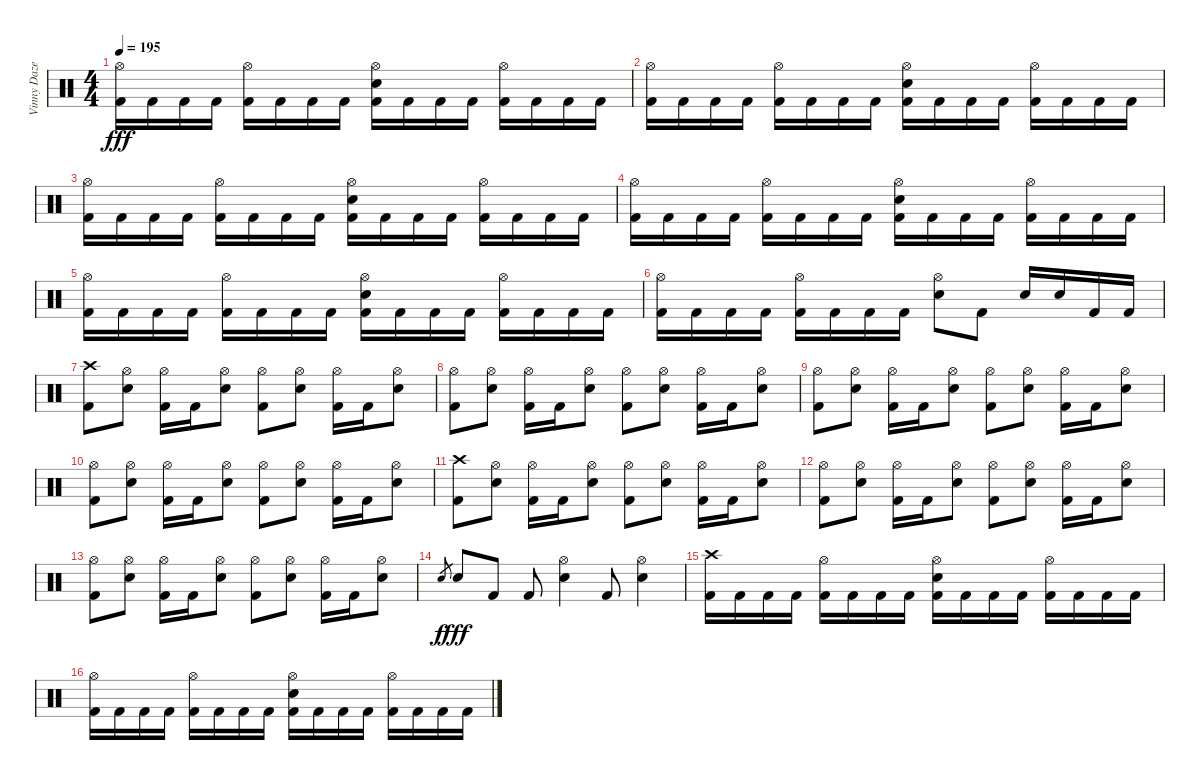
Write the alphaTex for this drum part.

\track ("Vinny Daze (R.I.P.)" "Vinny Daze") {instrument percussion}
\staff {score}
\articulation defaults
\ts (4 4)
\tempo 195
\clef neutral
\ks c
("Hi-Hat (open)" "Kick (hit) 2").16{dy fff} "Kick (hit) 2".16 "Kick (hit) 2".16 "Kick (hit) 2".16 ("Hi-Hat (open)" "Kick (hit) 2").16 "Kick (hit) 2".16 "Kick (hit) 2".16 "Kick (hit) 2".16 ("Hi-Hat (open)" "Electric Snare (hit)" "Kick (hit) 2").16 "Kick (hit) 2".16 "Kick (hit) 2".16 "Kick (hit) 2".16 ("Hi-Hat (open)" "Kick (hit) 2").16 "Kick (hit) 2".16 "Kick (hit) 2".16 "Kick (hit) 2".16 |
("Hi-Hat (open)" "Kick (hit) 2").16 "Kick (hit) 2".16 "Kick (hit) 2".16 "Kick (hit) 2".16 ("Hi-Hat (open)" "Kick (hit) 2").16 "Kick (hit) 2".16 "Kick (hit) 2".16 "Kick (hit) 2".16 ("Hi-Hat (open)" "Electric Snare (hit)" "Kick (hit) 2").16 "Kick (hit) 2".16 "Kick (hit) 2".16 "Kick (hit) 2".16 ("Hi-Hat (open)" "Kick (hit) 2").16 "Kick (hit) 2".16 "Kick (hit) 2".16 "Kick (hit) 2".16 |
("Hi-Hat (open)" "Kick (hit) 2").16 "Kick (hit) 2".16 "Kick (hit) 2".16 "Kick (hit) 2".16 ("Hi-Hat (open)" "Kick (hit) 2").16 "Kick (hit) 2".16 "Kick (hit) 2".16 "Kick (hit) 2".16 ("Hi-Hat (open)" "Electric Snare (hit)" "Kick (hit) 2").16 "Kick (hit) 2".16 "Kick (hit) 2".16 "Kick (hit) 2".16 ("Hi-Hat (open)" "Kick (hit) 2").16 "Kick (hit) 2".16 "Kick (hit) 2".16 "Kick (hit) 2".16 |
("Hi-Hat (open)" "Kick (hit) 2").16 "Kick (hit) 2".16 "Kick (hit) 2".16 "Kick (hit) 2".16 ("Hi-Hat (open)" "Kick (hit) 2").16 "Kick (hit) 2".16 "Kick (hit) 2".16 "Kick (hit) 2".16 ("Hi-Hat (open)" "Electric Snare (hit)" "Kick (hit) 2").16 "Kick (hit) 2".16 "Kick (hit) 2".16 "Kick (hit) 2".16 ("Hi-Hat (open)" "Kick (hit) 2").16 "Kick (hit) 2".16 "Kick (hit) 2".16 "Kick (hit) 2".16 |
("Hi-Hat (open)" "Kick (hit) 2").16 "Kick (hit) 2".16 "Kick (hit) 2".16 "Kick (hit) 2".16 ("Hi-Hat (open)" "Kick (hit) 2").16 "Kick (hit) 2".16 "Kick (hit) 2".16 "Kick (hit) 2".16 ("Hi-Hat (open)" "Electric Snare (hit)" "Kick (hit) 2").16 "Kick (hit) 2".16 "Kick (hit) 2".16 "Kick (hit) 2".16 ("Hi-Hat (open)" "Kick (hit) 2").16 "Kick (hit) 2".16 "Kick (hit) 2".16 "Kick (hit) 2".16 |
("Hi-Hat (open)" "Kick (hit) 2").16 "Kick (hit) 2".16 "Kick (hit) 2".16 "Kick (hit) 2".16 ("Hi-Hat (open)" "Kick (hit) 2").16 "Kick (hit) 2".16 "Kick (hit) 2".16 "Kick (hit) 2".16 ("Hi-Hat (open)" "Electric Snare (hit)").8 "Kick (hit) 2".8 "Electric Snare (hit)".16 "Electric Snare (hit)".16 "Kick (hit) 2".16 "Kick (hit) 2".16 |
("Crash high (hit)" "Kick (hit) 2").8 ("Hi-Hat (open)" "Electric Snare (hit)").8 ("Hi-Hat (open)" "Kick (hit) 2").16 "Kick (hit) 2".16 ("Hi-Hat (open)" "Electric Snare (hit)").8 ("Hi-Hat (open)" "Kick (hit) 2").8 ("Hi-Hat (open)" "Electric Snare (hit)").8 ("Hi-Hat (open)" "Kick (hit) 2").16 "Kick (hit) 2".16 ("Hi-Hat (open)" "Electric Snare (hit)").8 |
("Hi-Hat (open)" "Kick (hit) 2").8 ("Hi-Hat (open)" "Electric Snare (hit)").8 ("Hi-Hat (open)" "Kick (hit) 2").16 "Kick (hit) 2".16 ("Hi-Hat (open)" "Electric Snare (hit)").8 ("Hi-Hat (open)" "Kick (hit) 2").8 ("Hi-Hat (open)" "Electric Snare (hit)").8 ("Hi-Hat (open)" "Kick (hit) 2").16 "Kick (hit) 2".16 ("Hi-Hat (open)" "Electric Snare (hit)").8 |
("Hi-Hat (open)" "Kick (hit) 2").8 ("Hi-Hat (open)" "Electric Snare (hit)").8 ("Hi-Hat (open)" "Kick (hit) 2").16 "Kick (hit) 2".16 ("Hi-Hat (open)" "Electric Snare (hit)").8 ("Hi-Hat (open)" "Kick (hit) 2").8 ("Hi-Hat (open)" "Electric Snare (hit)").8 ("Hi-Hat (open)" "Kick (hit) 2").16 "Kick (hit) 2".16 ("Hi-Hat (open)" "Electric Snare (hit)").8 |
("Hi-Hat (open)" "Kick (hit) 2").8 ("Hi-Hat (open)" "Electric Snare (hit)").8 ("Hi-Hat (open)" "Kick (hit) 2").16 "Kick (hit) 2".16 ("Hi-Hat (open)" "Electric Snare (hit)").8 ("Hi-Hat (open)" "Kick (hit) 2").8 ("Hi-Hat (open)" "Electric Snare (hit)").8 ("Hi-Hat (open)" "Kick (hit) 2").16 "Kick (hit) 2".16 ("Hi-Hat (open)" "Electric Snare (hit)").8 |
("Crash high (hit)" "Kick (hit) 2").8 ("Hi-Hat (open)" "Electric Snare (hit)").8 ("Hi-Hat (open)" "Kick (hit) 2").16 "Kick (hit) 2".16 ("Hi-Hat (open)" "Electric Snare (hit)").8 ("Hi-Hat (open)" "Kick (hit) 2").8 ("Hi-Hat (open)" "Electric Snare (hit)").8 ("Hi-Hat (open)" "Kick (hit) 2").16 "Kick (hit) 2".16 ("Hi-Hat (open)" "Electric Snare (hit)").8 |
("Hi-Hat (open)" "Kick (hit) 2").8 ("Hi-Hat (open)" "Electric Snare (hit)").8 ("Hi-Hat (open)" "Kick (hit) 2").16 "Kick (hit) 2".16 ("Hi-Hat (open)" "Electric Snare (hit)").8 ("Hi-Hat (open)" "Kick (hit) 2").8 ("Hi-Hat (open)" "Electric Snare (hit)").8 ("Hi-Hat (open)" "Kick (hit) 2").16 "Kick (hit) 2".16 ("Hi-Hat (open)" "Electric Snare (hit)").8 |
("Hi-Hat (open)" "Kick (hit) 2").8 ("Hi-Hat (open)" "Electric Snare (hit)").8 ("Hi-Hat (open)" "Kick (hit) 2").16 "Kick (hit) 2".16 ("Hi-Hat (open)" "Electric Snare (hit)").8 ("Hi-Hat (open)" "Kick (hit) 2").8 ("Hi-Hat (open)" "Electric Snare (hit)").8 ("Hi-Hat (open)" "Kick (hit) 2").16 "Kick (hit) 2".16 ("Hi-Hat (open)" "Electric Snare (hit)").8 |
"Electric Snare (hit)".8{gr dy f} "Electric Snare (hit)".8{dy fff} "Kick (hit) 2".8 "Kick (hit) 2".8 ("Hi-Hat (open)" "Electric Snare (hit)").4 "Kick (hit) 2".8 ("Hi-Hat (open)" "Electric Snare (hit)").4 |
("Crash high (hit)" "Kick (hit) 2").16 "Kick (hit) 2".16 "Kick (hit) 2".16 "Kick (hit) 2".16 ("Hi-Hat (open)" "Kick (hit) 2").16 "Kick (hit) 2".16 "Kick (hit) 2".16 "Kick (hit) 2".16 ("Hi-Hat (open)" "Electric Snare (hit)" "Kick (hit) 2").16 "Kick (hit) 2".16 "Kick (hit) 2".16 "Kick (hit) 2".16 ("Hi-Hat (open)" "Kick (hit) 2").16 "Kick (hit) 2".16 "Kick (hit) 2".16 "Kick (hit) 2".16 |
("Hi-Hat (open)" "Kick (hit) 2").16 "Kick (hit) 2".16 "Kick (hit) 2".16 "Kick (hit) 2".16 ("Hi-Hat (open)" "Kick (hit) 2").16 "Kick (hit) 2".16 "Kick (hit) 2".16 "Kick (hit) 2".16 ("Hi-Hat (open)" "Electric Snare (hit)" "Kick (hit) 2").16 "Kick (hit) 2".16 "Kick (hit) 2".16 "Kick (hit) 2".16 ("Hi-Hat (open)" "Kick (hit) 2").16 "Kick (hit) 2".16 "Kick (hit) 2".16 "Kick (hit) 2".16
